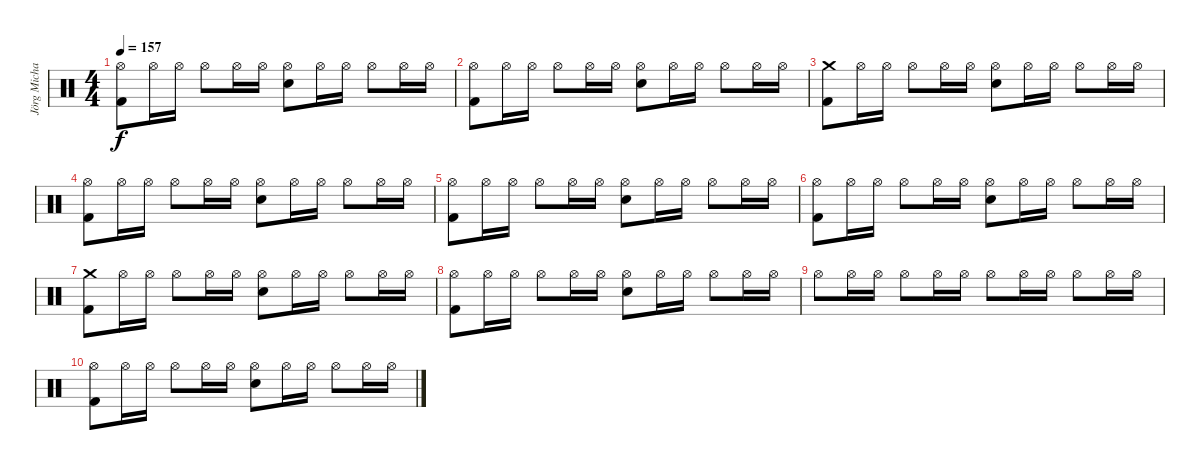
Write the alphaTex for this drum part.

\track ("Jörg Michael" "Jörg Micha") {instrument percussion}
\staff {score}
\articulation defaults
\ts (4 4)
\tempo 157
\clef neutral
\ks c
("Kick (hit) 2" "Hi-Hat (open)").8{dy f} "Hi-Hat (open)".16 "Hi-Hat (open)".16 "Hi-Hat (open)".8 "Hi-Hat (open)".16 "Hi-Hat (open)".16 ("Snare (hit) 2" "Hi-Hat (open)").8 "Hi-Hat (open)".16 "Hi-Hat (open)".16 "Hi-Hat (open)".8 "Hi-Hat (open)".16 "Hi-Hat (open)".16 |
("Kick (hit) 2" "Hi-Hat (open)").8{volume 16} "Hi-Hat (open)".16{volume 16} "Hi-Hat (open)".16{volume 16} "Hi-Hat (open)".8{volume 16} "Hi-Hat (open)".16{volume 15} "Hi-Hat (open)".16{volume 15} ("Snare (hit) 2" "Hi-Hat (open)").8{volume 15} "Hi-Hat (open)".16{volume 15} "Hi-Hat (open)".16{volume 15} "Hi-Hat (open)".8{volume 15} "Hi-Hat (open)".16{volume 14} "Hi-Hat (open)".16{volume 14} |
("Kick (hit) 2" "Crash medium (hit)").8{volume 14} "Hi-Hat (open)".16{volume 14} "Hi-Hat (open)".16{volume 14} "Hi-Hat (open)".8{volume 14} "Hi-Hat (open)".16{volume 14} "Hi-Hat (open)".16{volume 13} ("Snare (hit) 2" "Hi-Hat (open)").8{volume 13} "Hi-Hat (open)".16{volume 13} "Hi-Hat (open)".16{volume 13} "Hi-Hat (open)".8{volume 13} "Hi-Hat (open)".16{volume 13} "Hi-Hat (open)".16{volume 12} |
("Kick (hit) 2" "Hi-Hat (open)").8{volume 12} "Hi-Hat (open)".16{volume 12} "Hi-Hat (open)".16 "Hi-Hat (open)".8{volume 12} "Hi-Hat (open)".16{volume 12} "Hi-Hat (open)".16{volume 12} ("Snare (hit) 2" "Hi-Hat (open)").8{volume 12} "Hi-Hat (open)".16{volume 11} "Hi-Hat (open)".16 "Hi-Hat (open)".8{volume 11} "Hi-Hat (open)".16{volume 11} "Hi-Hat (open)".16{volume 11} |
("Kick (hit) 2" "Hi-Hat (open)").8{volume 11} "Hi-Hat (open)".16{volume 10} "Hi-Hat (open)".16{volume 10} "Hi-Hat (open)".8 "Hi-Hat (open)".16{volume 10} "Hi-Hat (open)".16{volume 10} ("Snare (hit) 2" "Hi-Hat (open)").8{volume 10} "Hi-Hat (open)".16{volume 10} "Hi-Hat (open)".16{volume 9} "Hi-Hat (open)".8 "Hi-Hat (open)".16{volume 9} "Hi-Hat (open)".16{volume 9} |
("Kick (hit) 2" "Hi-Hat (open)").8{volume 9} "Hi-Hat (open)".16{volume 9} "Hi-Hat (open)".16{volume 8} "Hi-Hat (open)".8{volume 8} "Hi-Hat (open)".16{volume 8} "Hi-Hat (open)".16{volume 8} ("Snare (hit) 2" "Hi-Hat (open)").8{volume 8} "Hi-Hat (open)".16{volume 8} "Hi-Hat (open)".16{volume 8} "Hi-Hat (open)".8{volume 8} "Hi-Hat (open)".16{volume 7} "Hi-Hat (open)".16{volume 7} |
("Kick (hit) 2" "Crash medium (hit)").8{volume 7} "Hi-Hat (open)".16{volume 7} "Hi-Hat (open)".16{volume 7} "Hi-Hat (open)".8{volume 7} "Hi-Hat (open)".16{volume 6} "Hi-Hat (open)".16{volume 6} ("Snare (hit) 2" "Hi-Hat (open)").8{volume 6} "Hi-Hat (open)".16{volume 6} "Hi-Hat (open)".16{volume 6} "Hi-Hat (open)".8{volume 6} "Hi-Hat (open)".16{volume 6} "Hi-Hat (open)".16{volume 6} |
("Kick (hit) 2" "Hi-Hat (open)").8{volume 5} "Hi-Hat (open)".16{volume 5} "Hi-Hat (open)".16{volume 5} "Hi-Hat (open)".8{volume 5} "Hi-Hat (open)".16{volume 5} "Hi-Hat (open)".16 ("Snare (hit) 2" "Hi-Hat (open)").8{volume 4} "Hi-Hat (open)".16{volume 4} "Hi-Hat (open)".16{volume 4} "Hi-Hat (open)".8{volume 4} "Hi-Hat (open)".16{volume 4} "Hi-Hat (open)".16 |
"Hi-Hat (open)".8{volume 4} "Hi-Hat (open)".16{volume 3} "Hi-Hat (open)".16{volume 3} "Hi-Hat (open)".8{volume 3} "Hi-Hat (open)".16{volume 3} "Hi-Hat (open)".16{volume 3} "Hi-Hat (open)".8 "Hi-Hat (open)".16{volume 2} "Hi-Hat (open)".16{volume 2} "Hi-Hat (open)".8{volume 2} "Hi-Hat (open)".16{volume 2} "Hi-Hat (open)".16{volume 2} |
("Kick (hit) 2" "Hi-Hat (open)").8 "Hi-Hat (open)".16{volume 2} "Hi-Hat (open)".16{volume 2} "Hi-Hat (open)".8{volume 1} "Hi-Hat (open)".16{volume 1} "Hi-Hat (open)".16{volume 1} ("Electric Snare (hit)" "Hi-Hat (open)").8{volume 1} "Hi-Hat (open)".16{volume 1} "Hi-Hat (open)".16{volume 1} "Hi-Hat (open)".8{volume 0} "Hi-Hat (open)".16{volume 0} "Hi-Hat (open)".16{volume 0}
